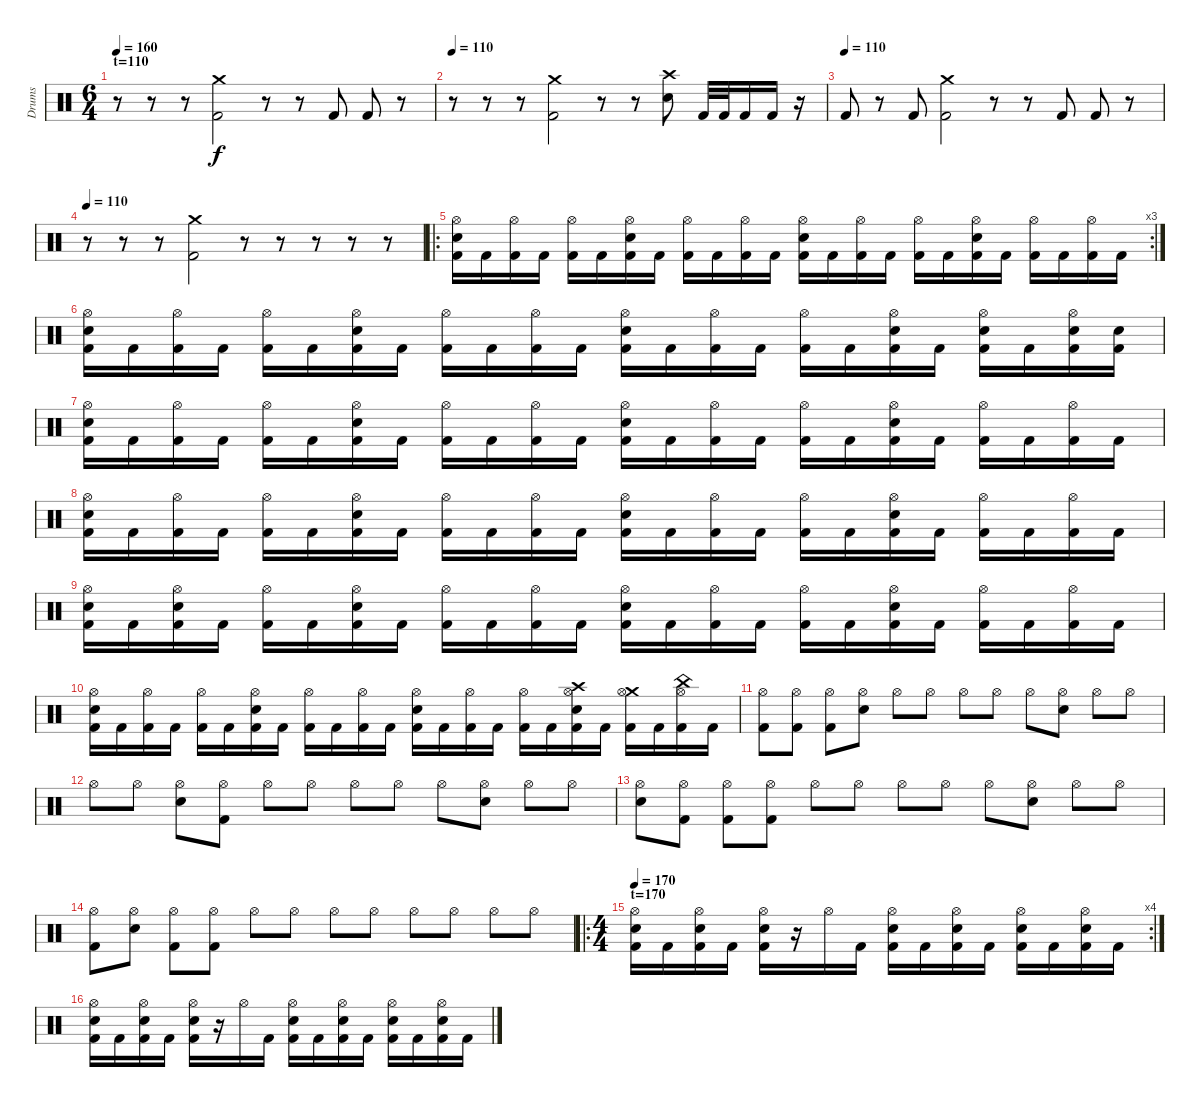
\track ("Drums" "Drums") {instrument percussion}
\staff {score}
\articulation defaults
\ts (6 4)
\section ("" "t=110")
\tempo 160
\tempo 110
\tempo 160
\clef neutral
\ks c
r.8{dy f} r.8 r.8 ("Crash medium (hit)" "Kick (hit) 2").2 r.8 r.8 "Kick (hit) 2".8 "Kick (hit) 2".8 r.8 |
\tempo 110
r.8 r.8 r.8 ("Crash medium (hit)" "Kick (hit) 2").2 r.8 r.8 ("Crash high (hit)" "Electric Snare (hit)").8 "Kick (hit) 2".32 "Kick (hit) 2".32 "Kick (hit) 2".16 "Kick (hit) 2".16 r.16 |
\tempo (110)
"Kick (hit) 2".8 r.8 "Kick (hit) 2".8 ("Crash medium (hit)" "Kick (hit) 2").2 r.8 r.8 "Kick (hit) 2".8 "Kick (hit) 2".8 r.8 |
\tempo 110
r.8 r.8 r.8 ("Crash medium (hit)" "Kick (hit) 2").2 r.8 r.8 r.8 r.8 r.8 |
\ro
\rc 3
("Electric Snare (hit)" "Hi-Hat (open)" "Kick (hit) 2").16 "Kick (hit) 2".16 ("Hi-Hat (open)" "Kick (hit) 2").16 "Kick (hit) 2".16 ("Hi-Hat (open)" "Kick (hit) 2").16 "Kick (hit) 2".16 ("Electric Snare (hit)" "Hi-Hat (open)" "Kick (hit) 2").16 "Kick (hit) 2".16 ("Hi-Hat (open)" "Kick (hit) 2").16 "Kick (hit) 2".16 ("Hi-Hat (open)" "Kick (hit) 2").16 "Kick (hit) 2".16 ("Electric Snare (hit)" "Hi-Hat (open)" "Kick (hit) 2").16 "Kick (hit) 2".16 ("Hi-Hat (open)" "Kick (hit) 2").16 "Kick (hit) 2".16 ("Hi-Hat (open)" "Kick (hit) 2").16 "Kick (hit) 2".16 ("Electric Snare (hit)" "Hi-Hat (open)" "Kick (hit) 2").16 "Kick (hit) 2".16 ("Hi-Hat (open)" "Kick (hit) 2").16 "Kick (hit) 2".16 ("Hi-Hat (open)" "Kick (hit) 2").16 "Kick (hit) 2".16 |
("Electric Snare (hit)" "Hi-Hat (open)" "Kick (hit) 2").16 "Kick (hit) 2".16 ("Hi-Hat (open)" "Kick (hit) 2").16 "Kick (hit) 2".16 ("Hi-Hat (open)" "Kick (hit) 2").16 "Kick (hit) 2".16 ("Electric Snare (hit)" "Hi-Hat (open)" "Kick (hit) 2").16 "Kick (hit) 2".16 ("Hi-Hat (open)" "Kick (hit) 2").16 "Kick (hit) 2".16 ("Hi-Hat (open)" "Kick (hit) 2").16 "Kick (hit) 2".16 ("Electric Snare (hit)" "Hi-Hat (open)" "Kick (hit) 2").16 "Kick (hit) 2".16 ("Hi-Hat (open)" "Kick (hit) 2").16 "Kick (hit) 2".16 ("Hi-Hat (open)" "Kick (hit) 2").16 "Kick (hit) 2".16 ("Electric Snare (hit)" "Hi-Hat (open)" "Kick (hit) 2").16 "Kick (hit) 2".16 ("Electric Snare (hit)" "Hi-Hat (open)" "Kick (hit) 2").16 "Kick (hit) 2".16 ("Electric Snare (hit)" "Hi-Hat (open)" "Kick (hit) 2").16 ("Electric Snare (hit)" "Kick (hit) 2").16 |
("Electric Snare (hit)" "Hi-Hat (open)" "Kick (hit) 2").16 "Kick (hit) 2".16 ("Hi-Hat (open)" "Kick (hit) 2").16 "Kick (hit) 2".16 ("Hi-Hat (open)" "Kick (hit) 2").16 "Kick (hit) 2".16 ("Electric Snare (hit)" "Hi-Hat (open)" "Kick (hit) 2").16 "Kick (hit) 2".16 ("Hi-Hat (open)" "Kick (hit) 2").16 "Kick (hit) 2".16 ("Hi-Hat (open)" "Kick (hit) 2").16 "Kick (hit) 2".16 ("Electric Snare (hit)" "Hi-Hat (open)" "Kick (hit) 2").16 "Kick (hit) 2".16 ("Hi-Hat (open)" "Kick (hit) 2").16 "Kick (hit) 2".16 ("Hi-Hat (open)" "Kick (hit) 2").16 "Kick (hit) 2".16 ("Electric Snare (hit)" "Hi-Hat (open)" "Kick (hit) 2").16 "Kick (hit) 2".16 ("Hi-Hat (open)" "Kick (hit) 2").16 "Kick (hit) 2".16 ("Hi-Hat (open)" "Kick (hit) 2").16 "Kick (hit) 2".16 |
("Electric Snare (hit)" "Hi-Hat (open)" "Kick (hit) 2").16 "Kick (hit) 2".16 ("Hi-Hat (open)" "Kick (hit) 2").16 "Kick (hit) 2".16 ("Hi-Hat (open)" "Kick (hit) 2").16 "Kick (hit) 2".16 ("Electric Snare (hit)" "Hi-Hat (open)" "Kick (hit) 2").16 "Kick (hit) 2".16 ("Hi-Hat (open)" "Kick (hit) 2").16 "Kick (hit) 2".16 ("Hi-Hat (open)" "Kick (hit) 2").16 "Kick (hit) 2".16 ("Electric Snare (hit)" "Hi-Hat (open)" "Kick (hit) 2").16 "Kick (hit) 2".16 ("Hi-Hat (open)" "Kick (hit) 2").16 "Kick (hit) 2".16 ("Hi-Hat (open)" "Kick (hit) 2").16 "Kick (hit) 2".16 ("Electric Snare (hit)" "Hi-Hat (open)" "Kick (hit) 2").16 "Kick (hit) 2".16 ("Hi-Hat (open)" "Kick (hit) 2").16 "Kick (hit) 2".16 ("Hi-Hat (open)" "Kick (hit) 2").16 "Kick (hit) 2".16 |
("Electric Snare (hit)" "Hi-Hat (open)" "Kick (hit) 2").16 "Kick (hit) 2".16 ("Electric Snare (hit)" "Hi-Hat (open)" "Kick (hit) 2").16 "Kick (hit) 2".16 ("Hi-Hat (open)" "Kick (hit) 2").16 "Kick (hit) 2".16 ("Electric Snare (hit)" "Hi-Hat (open)" "Kick (hit) 2").16 "Kick (hit) 2".16 ("Hi-Hat (open)" "Kick (hit) 2").16 "Kick (hit) 2".16 ("Hi-Hat (open)" "Kick (hit) 2").16 "Kick (hit) 2".16 ("Electric Snare (hit)" "Hi-Hat (open)" "Kick (hit) 2").16 "Kick (hit) 2".16 ("Hi-Hat (open)" "Kick (hit) 2").16 "Kick (hit) 2".16 ("Hi-Hat (open)" "Kick (hit) 2").16 "Kick (hit) 2".16 ("Electric Snare (hit)" "Hi-Hat (open)" "Kick (hit) 2").16 "Kick (hit) 2".16 ("Hi-Hat (open)" "Kick (hit) 2").16 "Kick (hit) 2".16 ("Hi-Hat (open)" "Kick (hit) 2").16 "Kick (hit) 2".16 |
("Electric Snare (hit)" "Hi-Hat (open)" "Kick (hit) 2").16 "Kick (hit) 2".16 ("Hi-Hat (open)" "Kick (hit) 2").16 "Kick (hit) 2".16 ("Hi-Hat (open)" "Kick (hit) 2").16 "Kick (hit) 2".16 ("Electric Snare (hit)" "Hi-Hat (open)" "Kick (hit) 2").16 "Kick (hit) 2".16 ("Hi-Hat (open)" "Kick (hit) 2").16 "Kick (hit) 2".16 ("Hi-Hat (open)" "Kick (hit) 2").16 "Kick (hit) 2".16 ("Electric Snare (hit)" "Hi-Hat (open)" "Kick (hit) 2").16 "Kick (hit) 2".16 ("Hi-Hat (open)" "Kick (hit) 2").16 "Kick (hit) 2".16 ("Hi-Hat (open)" "Kick (hit) 2").16 "Kick (hit) 2".16 ("Crash high (hit)" "Electric Snare (hit)" "Hi-Hat (open)" "Kick (hit) 2").16 "Kick (hit) 2".16 ("Crash medium (hit)" "Hi-Hat (open)" "Kick (hit) 2").16 "Kick (hit) 2".16 ("China (hit)" "Hi-Hat (open)" "Kick (hit) 2").16 "Kick (hit) 2".16 |
("Hi-Hat (open)" "Kick (hit) 2").8 ("Hi-Hat (open)" "Kick (hit) 2").8 ("Hi-Hat (open)" "Kick (hit) 2").8 ("Hi-Hat (open)" "Electric Snare (hit)").8 "Hi-Hat (open)".8 "Hi-Hat (open)".8 "Hi-Hat (open)".8 "Hi-Hat (open)".8 "Hi-Hat (open)".8 ("Hi-Hat (open)" "Electric Snare (hit)").8 "Hi-Hat (open)".8 "Hi-Hat (open)".8 |
"Hi-Hat (open)".8 "Hi-Hat (open)".8 ("Hi-Hat (open)" "Electric Snare (hit)").8 ("Hi-Hat (open)" "Kick (hit) 2").8 "Hi-Hat (open)".8 "Hi-Hat (open)".8 "Hi-Hat (open)".8 "Hi-Hat (open)".8 "Hi-Hat (open)".8 ("Hi-Hat (open)" "Electric Snare (hit)").8 "Hi-Hat (open)".8 "Hi-Hat (open)".8 |
("Hi-Hat (open)" "Electric Snare (hit)").8 ("Hi-Hat (open)" "Kick (hit) 2").8 ("Hi-Hat (open)" "Kick (hit) 2").8 ("Hi-Hat (open)" "Kick (hit) 2").8 "Hi-Hat (open)".8 "Hi-Hat (open)".8 "Hi-Hat (open)".8 "Hi-Hat (open)".8 "Hi-Hat (open)".8 ("Hi-Hat (open)" "Electric Snare (hit)").8 "Hi-Hat (open)".8 "Hi-Hat (open)".8 |
("Hi-Hat (open)" "Kick (hit) 2").8 ("Hi-Hat (open)" "Electric Snare (hit)").8 ("Hi-Hat (open)" "Kick (hit) 2").8 ("Hi-Hat (open)" "Kick (hit) 2").8 "Hi-Hat (open)".8 "Hi-Hat (open)".8 "Hi-Hat (open)".8 "Hi-Hat (open)".8 "Hi-Hat (open)".8 "Hi-Hat (open)".8 "Hi-Hat (open)".8 "Hi-Hat (open)".8 |
\ro
\rc 4
\ts (4 4)
\section ("" "t=170")
\tempo 160
\tempo 170
("Hi-Hat (open)" "Electric Snare (hit)" "Kick (hit) 2").16 "Kick (hit) 2".16 ("Hi-Hat (open)" "Electric Snare (hit)" "Kick (hit) 2").16 "Kick (hit) 2".16 ("Hi-Hat (open)" "Electric Snare (hit)" "Kick (hit) 2").16 r.16 "Hi-Hat (open)".16 "Kick (hit) 2".16 ("Hi-Hat (open)" "Electric Snare (hit)" "Kick (hit) 2").16 "Kick (hit) 2".16 ("Hi-Hat (open)" "Electric Snare (hit)" "Kick (hit) 2").16 "Kick (hit) 2".16 ("Hi-Hat (open)" "Electric Snare (hit)" "Kick (hit) 2").16 "Kick (hit) 2".16 ("Hi-Hat (open)" "Electric Snare (hit)" "Kick (hit) 2").16 "Kick (hit) 2".16 |
("Hi-Hat (open)" "Electric Snare (hit)" "Kick (hit) 2").16 "Kick (hit) 2".16 ("Hi-Hat (open)" "Electric Snare (hit)" "Kick (hit) 2").16 "Kick (hit) 2".16 ("Hi-Hat (open)" "Electric Snare (hit)" "Kick (hit) 2").16 r.16 "Hi-Hat (open)".16 "Kick (hit) 2".16 ("Hi-Hat (open)" "Electric Snare (hit)" "Kick (hit) 2").16 "Kick (hit) 2".16 ("Hi-Hat (open)" "Electric Snare (hit)" "Kick (hit) 2").16 "Kick (hit) 2".16 ("Hi-Hat (open)" "Electric Snare (hit)" "Kick (hit) 2").16 "Kick (hit) 2".16 ("Hi-Hat (open)" "Electric Snare (hit)" "Kick (hit) 2").16 "Kick (hit) 2".16
